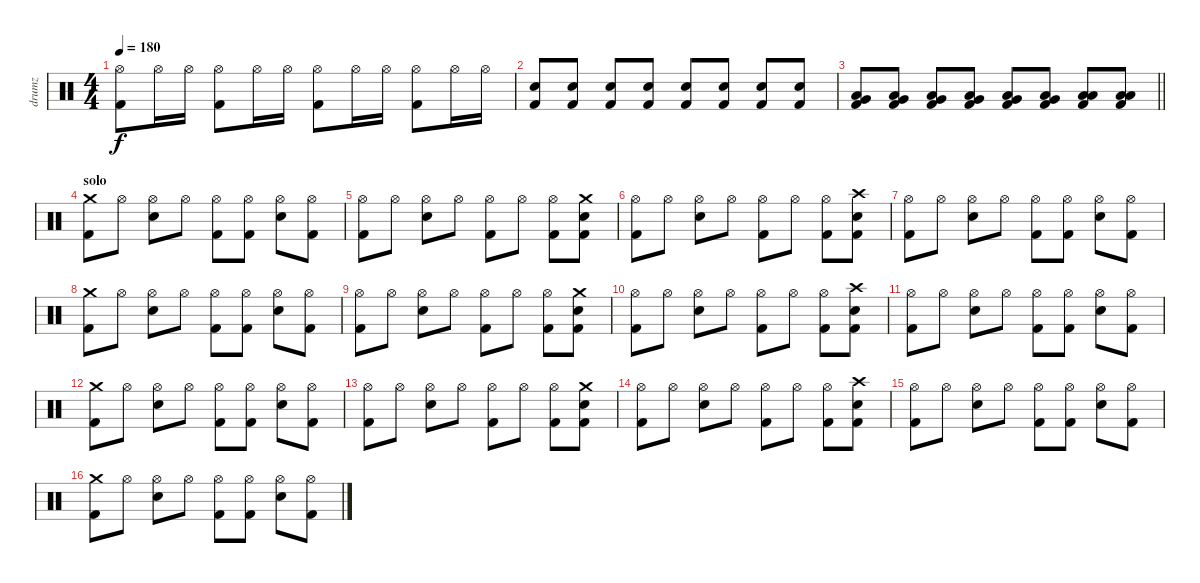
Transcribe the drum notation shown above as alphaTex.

\track ("drumz" "drumz") {instrument percussion}
\staff {score}
\articulation defaults
\ts (4 4)
\tempo 180
\clef neutral
\ks c
("Hi-Hat (open)" "Kick (hit) 2").8{dy f} "Hi-Hat (open)".16 "Hi-Hat (open)".16 ("Hi-Hat (open)" "Kick (hit) 2").8 "Hi-Hat (open)".16 "Hi-Hat (open)".16 ("Hi-Hat (open)" "Kick (hit) 2").8 "Hi-Hat (open)".16 "Hi-Hat (open)".16 ("Hi-Hat (open)" "Kick (hit) 2").8 "Hi-Hat (open)".16 "Hi-Hat (open)".16 |
("Electric Snare (hit)" "Kick (hit) 2").8 ("Electric Snare (hit)" "Kick (hit) 2").8 ("Electric Snare (hit)" "Kick (hit) 2").8 ("Electric Snare (hit)" "Kick (hit) 2").8 ("Electric Snare (hit)" "Kick (hit) 2").8 ("Electric Snare (hit)" "Kick (hit) 2").8 ("Electric Snare (hit)" "Kick (hit) 2").8 ("Electric Snare (hit)" "Kick (hit) 2").8 |
\barLineRight lightlight
("Low Tom (hit)" "Very Low Tom (hit)" "Kick (hit) 2").8 ("Low Tom (hit)" "Very Low Tom (hit)" "Kick (hit) 2").8 ("Low Tom (hit)" "Very Low Tom (hit)" "Kick (hit) 2").8 ("Low Tom (hit)" "Very Low Tom (hit)" "Kick (hit) 2").8 ("Very Low Tom (hit)" "Low Floor Tom (hit)" "Kick (hit) 2").8 ("Very Low Tom (hit)" "Low Floor Tom (hit)" "Kick (hit) 2").8 ("Low Floor Tom (hit)" "Low Floor Tom (hit)" "Kick (hit) 2").8 ("Low Floor Tom (hit)" "Low Floor Tom (hit)" "Kick (hit) 2").8 |
\section ("" "solo")
("Crash medium (hit)" "Kick (hit) 2").8 "Hi-Hat (open)".8 ("Hi-Hat (open)" "Electric Snare (hit)").8 "Hi-Hat (open)".8 ("Hi-Hat (open)" "Kick (hit) 2").8 ("Hi-Hat (open)" "Kick (hit) 2").8 ("Hi-Hat (open)" "Electric Snare (hit)").8 ("Hi-Hat (open)" "Kick (hit) 2").8 |
("Hi-Hat (open)" "Kick (hit) 2").8 "Hi-Hat (open)".8 ("Hi-Hat (open)" "Electric Snare (hit)").8 "Hi-Hat (open)".8 ("Hi-Hat (open)" "Kick (hit) 2").8 "Hi-Hat (open)".8 ("Hi-Hat (open)" "Kick (hit) 2").8 ("Crash medium (hit)" "Electric Snare (hit)" "Kick (hit) 2").8 |
("Hi-Hat (open)" "Kick (hit) 2").8 "Hi-Hat (open)".8 ("Hi-Hat (open)" "Electric Snare (hit)").8 "Hi-Hat (open)".8 ("Hi-Hat (open)" "Kick (hit) 2").8 "Hi-Hat (open)".8 ("Hi-Hat (open)" "Kick (hit) 2").8 ("Crash high (hit)" "Electric Snare (hit)" "Kick (hit) 2").8 |
("Hi-Hat (open)" "Kick (hit) 2").8 "Hi-Hat (open)".8 ("Hi-Hat (open)" "Electric Snare (hit)").8 "Hi-Hat (open)".8 ("Hi-Hat (open)" "Kick (hit) 2").8 ("Hi-Hat (open)" "Kick (hit) 2").8 ("Hi-Hat (open)" "Electric Snare (hit)").8 ("Hi-Hat (open)" "Kick (hit) 2").8 |
("Crash medium (hit)" "Kick (hit) 2").8 "Hi-Hat (open)".8 ("Hi-Hat (open)" "Electric Snare (hit)").8 "Hi-Hat (open)".8 ("Hi-Hat (open)" "Kick (hit) 2").8 ("Hi-Hat (open)" "Kick (hit) 2").8 ("Hi-Hat (open)" "Electric Snare (hit)").8 ("Hi-Hat (open)" "Kick (hit) 2").8 |
("Hi-Hat (open)" "Kick (hit) 2").8 "Hi-Hat (open)".8 ("Hi-Hat (open)" "Electric Snare (hit)").8 "Hi-Hat (open)".8 ("Hi-Hat (open)" "Kick (hit) 2").8 "Hi-Hat (open)".8 ("Hi-Hat (open)" "Kick (hit) 2").8 ("Crash medium (hit)" "Electric Snare (hit)" "Kick (hit) 2").8 |
("Hi-Hat (open)" "Kick (hit) 2").8 "Hi-Hat (open)".8 ("Hi-Hat (open)" "Electric Snare (hit)").8 "Hi-Hat (open)".8 ("Hi-Hat (open)" "Kick (hit) 2").8 "Hi-Hat (open)".8 ("Hi-Hat (open)" "Kick (hit) 2").8 ("Crash high (hit)" "Electric Snare (hit)" "Kick (hit) 2").8 |
("Hi-Hat (open)" "Kick (hit) 2").8 "Hi-Hat (open)".8 ("Hi-Hat (open)" "Electric Snare (hit)").8 "Hi-Hat (open)".8 ("Hi-Hat (open)" "Kick (hit) 2").8 ("Hi-Hat (open)" "Kick (hit) 2").8 ("Hi-Hat (open)" "Electric Snare (hit)").8 ("Hi-Hat (open)" "Kick (hit) 2").8 |
("Crash medium (hit)" "Kick (hit) 2").8 "Hi-Hat (open)".8 ("Hi-Hat (open)" "Electric Snare (hit)").8 "Hi-Hat (open)".8 ("Hi-Hat (open)" "Kick (hit) 2").8 ("Hi-Hat (open)" "Kick (hit) 2").8 ("Hi-Hat (open)" "Electric Snare (hit)").8 ("Hi-Hat (open)" "Kick (hit) 2").8 |
("Hi-Hat (open)" "Kick (hit) 2").8 "Hi-Hat (open)".8 ("Hi-Hat (open)" "Electric Snare (hit)").8 "Hi-Hat (open)".8 ("Hi-Hat (open)" "Kick (hit) 2").8 "Hi-Hat (open)".8 ("Hi-Hat (open)" "Kick (hit) 2").8 ("Crash medium (hit)" "Electric Snare (hit)" "Kick (hit) 2").8 |
("Hi-Hat (open)" "Kick (hit) 2").8 "Hi-Hat (open)".8 ("Hi-Hat (open)" "Electric Snare (hit)").8 "Hi-Hat (open)".8 ("Hi-Hat (open)" "Kick (hit) 2").8 "Hi-Hat (open)".8 ("Hi-Hat (open)" "Kick (hit) 2").8 ("Crash high (hit)" "Electric Snare (hit)" "Kick (hit) 2").8 |
("Hi-Hat (open)" "Kick (hit) 2").8 "Hi-Hat (open)".8 ("Hi-Hat (open)" "Electric Snare (hit)").8 "Hi-Hat (open)".8 ("Hi-Hat (open)" "Kick (hit) 2").8 ("Hi-Hat (open)" "Kick (hit) 2").8 ("Hi-Hat (open)" "Electric Snare (hit)").8 ("Hi-Hat (open)" "Kick (hit) 2").8 |
("Crash medium (hit)" "Kick (hit) 2").8 "Hi-Hat (open)".8 ("Hi-Hat (open)" "Electric Snare (hit)").8 "Hi-Hat (open)".8 ("Hi-Hat (open)" "Kick (hit) 2").8 ("Hi-Hat (open)" "Kick (hit) 2").8 ("Hi-Hat (open)" "Electric Snare (hit)").8 ("Hi-Hat (open)" "Kick (hit) 2").8
